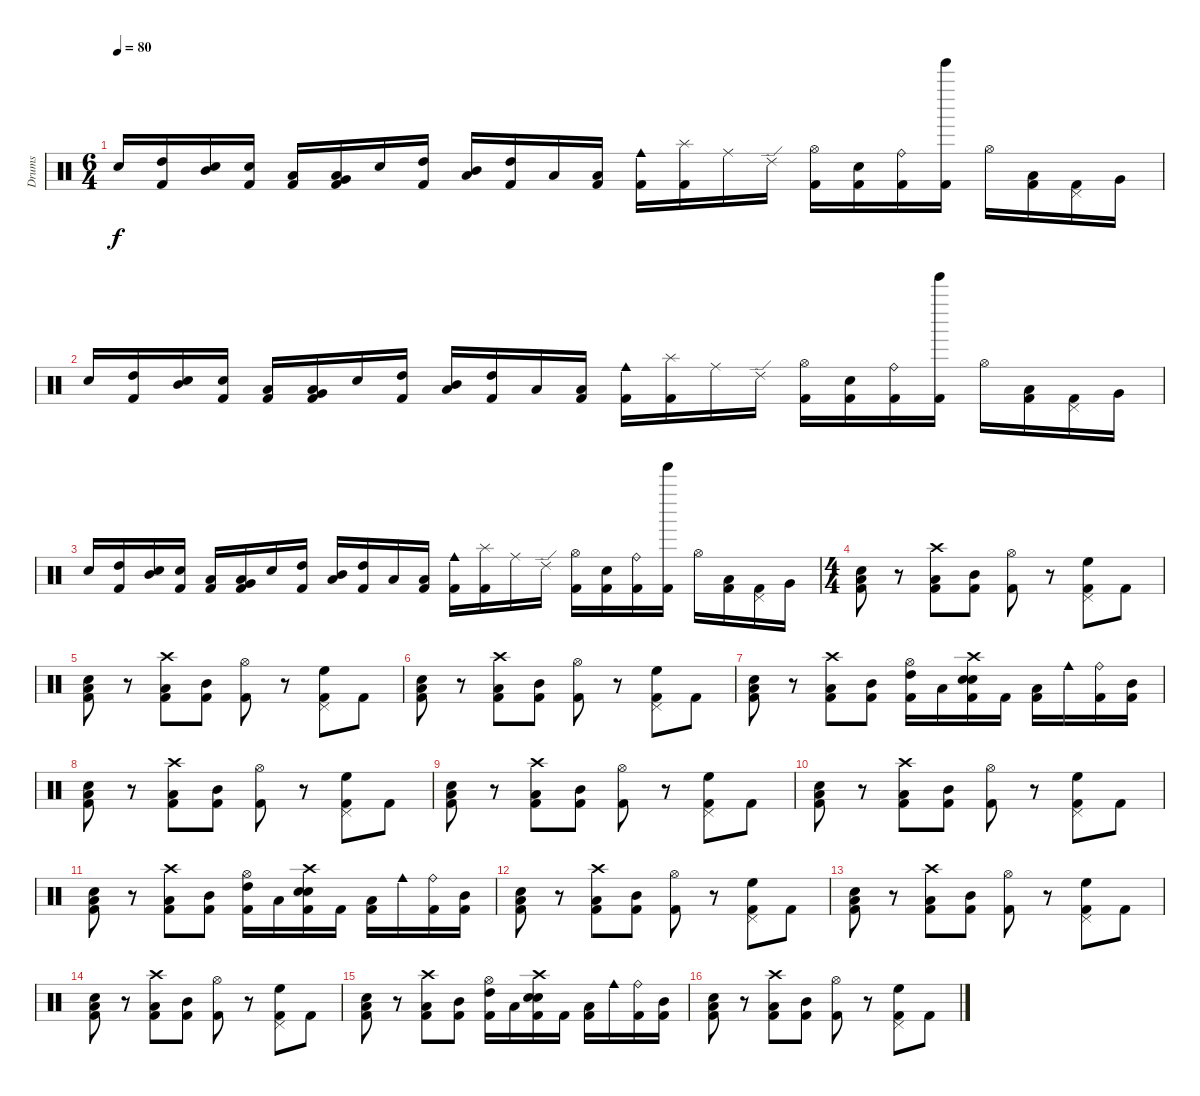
\track ("Drums" "Drums") {instrument percussion}
\staff {score}
\articulation defaults
\ts (6 4)
\tempo 80
\clef neutral
\ks c "Electric Snare (hit)".16{dy f}
("Kick (hit) 2" "High Tom (hit)").16 ("Mid Tom (hit)" "Electric Snare (hit)").16 ("Kick (hit) 2" "Electric Snare (hit)").16 ("Kick (hit) 2" "Low Floor Tom (hit)").16 ("Kick (hit) 2" "Very Low Tom (hit)" "Low Floor Tom (hit)").16 "Electric Snare (hit)".16 ("Kick (hit) 2" "High Tom (hit)").16 ("Mid Tom (hit)" "Low Tom (hit)").16 ("Kick (hit) 2" "High Tom (hit)").16 "Low Tom (hit)".16 ("Kick (hit) 2" "Low Tom (hit)").16 ("Kick (hit) 2" "Cowbell medium (hit)").16 ("Kick (hit) 2" "Splash (hit)").16 "Ride (middle)".16 "Ride (edge) 2".16 ("Kick (hit) 2" "Hi-Hat (open)").16 ("Kick (hit) 2" "Electric Snare (hit)").16 ("Kick (hit) 2" "Ride (bell)").16 ("Kick (hit) 2" "Tinkle Bell (hit)").16 "Hi-Hat (open)".16 ("Kick (hit) 2" "Low Tom (hit)").16 ("Kick (hit) 2" "Pedal Hi-Hat (hit)").16 "Very Low Tom (hit)".16 |
"Electric Snare (hit)".16 ("Kick (hit) 2" "High Tom (hit)").16 ("Mid Tom (hit)" "Electric Snare (hit)").16 ("Kick (hit) 2" "Electric Snare (hit)").16 ("Kick (hit) 2" "Low Floor Tom (hit)").16 ("Kick (hit) 2" "Very Low Tom (hit)" "Low Floor Tom (hit)").16 "Electric Snare (hit)".16 ("Kick (hit) 2" "High Tom (hit)").16 ("Mid Tom (hit)" "Low Tom (hit)").16 ("Kick (hit) 2" "High Tom (hit)").16 "Low Tom (hit)".16 ("Kick (hit) 2" "Low Tom (hit)").16 ("Kick (hit) 2" "Cowbell medium (hit)").16 ("Kick (hit) 2" "Splash (hit)").16 "Ride (middle)".16 "Ride (edge) 2".16 ("Kick (hit) 2" "Hi-Hat (open)").16 ("Kick (hit) 2" "Electric Snare (hit)").16 ("Kick (hit) 2" "Ride (bell)").16 ("Kick (hit) 2" "Tinkle Bell (hit)").16 "Hi-Hat (open)".16 ("Kick (hit) 2" "Low Tom (hit)").16 ("Kick (hit) 2" "Pedal Hi-Hat (hit)").16 "Very Low Tom (hit)".16 |
"Electric Snare (hit)".16 ("Kick (hit) 2" "High Tom (hit)").16 ("Mid Tom (hit)" "Electric Snare (hit)").16 ("Kick (hit) 2" "Electric Snare (hit)").16 ("Kick (hit) 2" "Low Floor Tom (hit)").16 ("Kick (hit) 2" "Very Low Tom (hit)" "Low Floor Tom (hit)").16 "Electric Snare (hit)".16 ("Kick (hit) 2" "High Tom (hit)").16 ("Mid Tom (hit)" "Low Tom (hit)").16 ("Kick (hit) 2" "High Tom (hit)").16 "Low Tom (hit)".16 ("Kick (hit) 2" "Low Tom (hit)").16 ("Kick (hit) 2" "Cowbell medium (hit)").16 ("Kick (hit) 2" "Splash (hit)").16 "Ride (middle)".16 "Ride (edge) 2".16 ("Kick (hit) 2" "Hi-Hat (open)").16 ("Kick (hit) 2" "Electric Snare (hit)").16 ("Kick (hit) 2" "Ride (bell)").16 ("Kick (hit) 2" "Tinkle Bell (hit)").16 "Hi-Hat (open)".16 ("Kick (hit) 2" "Low Tom (hit)").16 ("Kick (hit) 2" "Pedal Hi-Hat (hit)").16 "Very Low Tom (hit)".16 |
\ts (4 4)
("Kick (hit) 2" "Electric Snare (hit)" "Low Floor Tom (hit)").8 r.8 ("Kick (hit) 2" "Low Floor Tom (hit)" "Crash high (hit)").8 ("Kick (hit) 2" "Mid Tom (hit)").8 ("Kick (hit) 2" "Hi-Hat (open)").8 r.8 ("Kick (hit) 2" "Pedal Hi-Hat (hit)" "High Floor Tom (hit)").8 "Kick (hit) 2".8 |
("Kick (hit) 2" "Electric Snare (hit)" "Low Floor Tom (hit)").8 r.8 ("Kick (hit) 2" "Low Floor Tom (hit)" "Crash high (hit)").8 ("Kick (hit) 2" "Mid Tom (hit)").8 ("Kick (hit) 2" "Hi-Hat (open)").8 r.8 ("Kick (hit) 2" "Pedal Hi-Hat (hit)" "High Floor Tom (hit)").8 "Kick (hit) 2".8 |
("Kick (hit) 2" "Electric Snare (hit)" "Low Floor Tom (hit)").8 r.8 ("Kick (hit) 2" "Low Floor Tom (hit)" "Crash high (hit)").8 ("Kick (hit) 2" "Mid Tom (hit)").8 ("Kick (hit) 2" "Hi-Hat (open)").8 r.8 ("Kick (hit) 2" "Pedal Hi-Hat (hit)" "High Floor Tom (hit)").8 "Kick (hit) 2".8 |
("Kick (hit) 2" "Electric Snare (hit)" "Low Floor Tom (hit)").8 r.8 ("Kick (hit) 2" "Low Floor Tom (hit)" "Crash high (hit)").8 ("Kick (hit) 2" "Mid Tom (hit)").8 ("Kick (hit) 2" "Hi-Hat (open)" "High Tom (hit)").16 "Low Tom (hit)".16 ("Kick (hit) 2" "Electric Snare (hit)" "Crash high (hit)" "Electric Snare (hit)").16 "Kick (hit) 2".16 ("Kick (hit) 2" "Low Floor Tom (hit)").16 "Cowbell medium (hit)".16 ("Kick (hit) 2" "Ride (bell)").16 ("Kick (hit) 2" "Mid Tom (hit)").16 |
("Kick (hit) 2" "Electric Snare (hit)" "Low Floor Tom (hit)").8 r.8 ("Kick (hit) 2" "Low Floor Tom (hit)" "Crash high (hit)").8 ("Kick (hit) 2" "Mid Tom (hit)").8 ("Kick (hit) 2" "Hi-Hat (open)").8 r.8 ("Kick (hit) 2" "Pedal Hi-Hat (hit)" "High Floor Tom (hit)").8 "Kick (hit) 2".8 |
("Kick (hit) 2" "Electric Snare (hit)" "Low Floor Tom (hit)").8 r.8 ("Kick (hit) 2" "Low Floor Tom (hit)" "Crash high (hit)").8 ("Kick (hit) 2" "Mid Tom (hit)").8 ("Kick (hit) 2" "Hi-Hat (open)").8 r.8 ("Kick (hit) 2" "Pedal Hi-Hat (hit)" "High Floor Tom (hit)").8 "Kick (hit) 2".8 |
("Kick (hit) 2" "Electric Snare (hit)" "Low Floor Tom (hit)").8 r.8 ("Kick (hit) 2" "Low Floor Tom (hit)" "Crash high (hit)").8 ("Kick (hit) 2" "Mid Tom (hit)").8 ("Kick (hit) 2" "Hi-Hat (open)").8 r.8 ("Kick (hit) 2" "Pedal Hi-Hat (hit)" "High Floor Tom (hit)").8 "Kick (hit) 2".8 |
("Kick (hit) 2" "Electric Snare (hit)" "Low Floor Tom (hit)").8 r.8 ("Kick (hit) 2" "Low Floor Tom (hit)" "Crash high (hit)").8 ("Kick (hit) 2" "Mid Tom (hit)").8 ("Kick (hit) 2" "Hi-Hat (open)" "High Tom (hit)").16 "Low Tom (hit)".16 ("Kick (hit) 2" "Electric Snare (hit)" "Crash high (hit)" "Electric Snare (hit)").16 "Kick (hit) 2".16 ("Kick (hit) 2" "Low Floor Tom (hit)").16 "Cowbell medium (hit)".16 ("Kick (hit) 2" "Ride (bell)").16 ("Kick (hit) 2" "Mid Tom (hit)").16 |
("Kick (hit) 2" "Electric Snare (hit)" "Low Floor Tom (hit)").8 r.8 ("Kick (hit) 2" "Low Floor Tom (hit)" "Crash high (hit)").8 ("Kick (hit) 2" "Mid Tom (hit)").8 ("Kick (hit) 2" "Hi-Hat (open)").8 r.8 ("Kick (hit) 2" "Pedal Hi-Hat (hit)" "High Floor Tom (hit)").8 "Kick (hit) 2".8 |
("Kick (hit) 2" "Electric Snare (hit)" "Low Floor Tom (hit)").8 r.8 ("Kick (hit) 2" "Low Floor Tom (hit)" "Crash high (hit)").8 ("Kick (hit) 2" "Mid Tom (hit)").8 ("Kick (hit) 2" "Hi-Hat (open)").8 r.8 ("Kick (hit) 2" "Pedal Hi-Hat (hit)" "High Floor Tom (hit)").8 "Kick (hit) 2".8 |
("Kick (hit) 2" "Electric Snare (hit)" "Low Floor Tom (hit)").8 r.8 ("Kick (hit) 2" "Low Floor Tom (hit)" "Crash high (hit)").8 ("Kick (hit) 2" "Mid Tom (hit)").8 ("Kick (hit) 2" "Hi-Hat (open)").8 r.8 ("Kick (hit) 2" "Pedal Hi-Hat (hit)" "High Floor Tom (hit)").8 "Kick (hit) 2".8 |
("Kick (hit) 2" "Electric Snare (hit)" "Low Floor Tom (hit)").8 r.8 ("Kick (hit) 2" "Low Floor Tom (hit)" "Crash high (hit)").8 ("Kick (hit) 2" "Mid Tom (hit)").8 ("Kick (hit) 2" "Hi-Hat (open)" "High Tom (hit)").16 "Low Tom (hit)".16 ("Kick (hit) 2" "Electric Snare (hit)" "Crash high (hit)" "Electric Snare (hit)").16 "Kick (hit) 2".16 ("Kick (hit) 2" "Low Floor Tom (hit)").16 "Cowbell medium (hit)".16 ("Kick (hit) 2" "Ride (bell)").16 ("Kick (hit) 2" "Mid Tom (hit)").16 |
("Kick (hit) 2" "Electric Snare (hit)" "Low Floor Tom (hit)").8 r.8 ("Kick (hit) 2" "Low Floor Tom (hit)" "Crash high (hit)").8 ("Kick (hit) 2" "Mid Tom (hit)").8 ("Kick (hit) 2" "Hi-Hat (open)").8 r.8 ("Kick (hit) 2" "Pedal Hi-Hat (hit)" "High Floor Tom (hit)").8 "Kick (hit) 2".8
